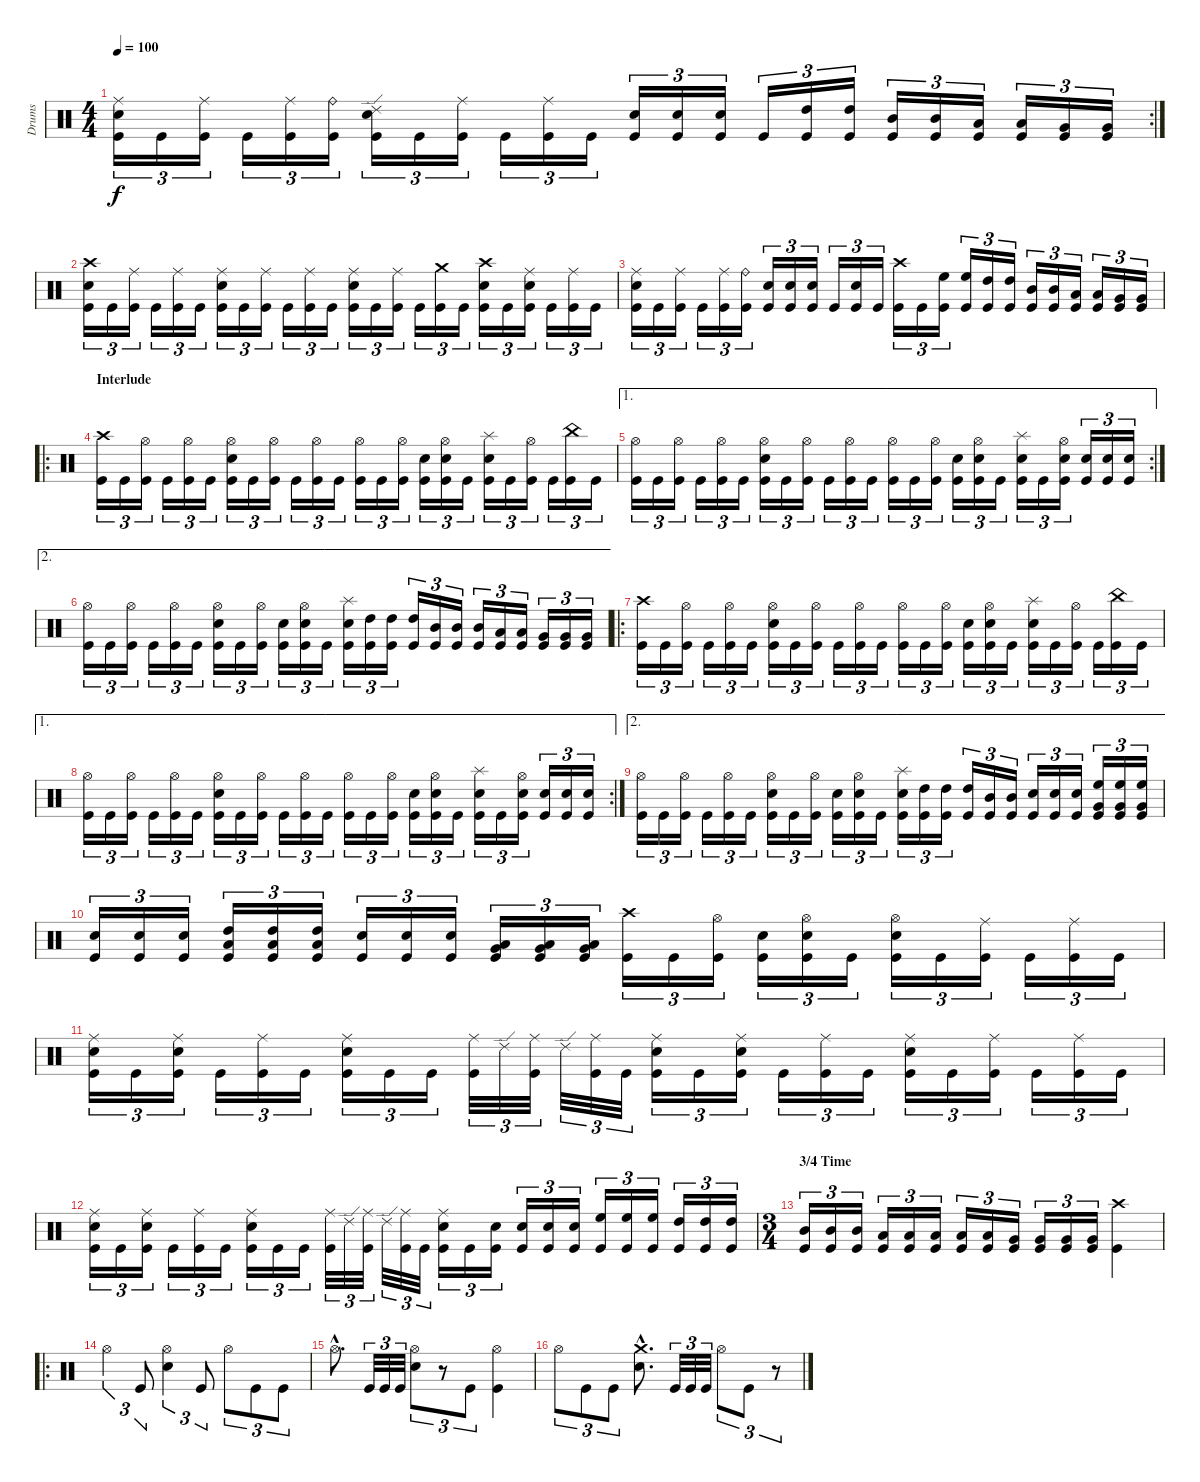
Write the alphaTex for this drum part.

\track ("Drums" "Drums") {instrument percussion}
\staff {score}
\articulation defaults
\rc 2
\ts (4 4)
\tempo 100
\clef neutral
\ks c
("Ride (middle)" "Electric Snare (hit)" "Kick (hit)").16{tu (3 2) dy f} "Kick (hit)".16{tu (3 2)} ("Ride (middle)" "Kick (hit)").16{tu (3 2)} "Kick (hit)".16{tu (3 2)} ("Ride (middle)" "Kick (hit)").16{tu (3 2)} ("Ride (bell)" "Kick (hit)").16{tu (3 2)} ("Ride (edge) 2" "Electric Snare (hit)" "Kick (hit)").16{tu (3 2)} "Kick (hit)".16{tu (3 2)} ("Ride (middle)" "Kick (hit)").16{tu (3 2)} "Kick (hit)".16{tu (3 2)} ("Ride (middle)" "Kick (hit)").16{tu (3 2)} "Kick (hit)".16{tu (3 2)} ("Electric Snare (hit)" "Kick (hit)").16{tu (3 2)} ("Electric Snare (hit)" "Kick (hit)").16{tu (3 2)} ("Electric Snare (hit)" "Kick (hit)").16{tu (3 2)} "Kick (hit)".16{tu (3 2)} ("High Tom (hit)" "Kick (hit)").16{tu (3 2)} ("High Tom (hit)" "Kick (hit)").16{tu (3 2)} ("Mid Tom (hit)" "Kick (hit)").16{tu (3 2)} ("Mid Tom (hit)" "Kick (hit)").16{tu (3 2)} ("Low Tom (hit)" "Kick (hit)").16{tu (3 2)} ("Low Tom (hit)" "Kick (hit)").16{tu (3 2)} ("Very Low Tom (hit)" "Kick (hit)").16{tu (3 2)} ("Very Low Tom (hit)" "Kick (hit)").16{tu (3 2)} |
("Crash high (hit)" "Electric Snare (hit)" "Kick (hit)").16{tu (3 2)} "Kick (hit)".16{tu (3 2)} ("Ride (middle)" "Kick (hit)").16{tu (3 2)} "Kick (hit)".16{tu (3 2)} ("Ride (middle)" "Kick (hit)").16{tu (3 2)} "Kick (hit)".16{tu (3 2)} ("Ride (middle)" "Electric Snare (hit)" "Kick (hit)").16{tu (3 2)} "Kick (hit)".16{tu (3 2)} ("Ride (middle)" "Kick (hit)").16{tu (3 2)} "Kick (hit)".16{tu (3 2)} ("Ride (middle)" "Kick (hit)").16{tu (3 2)} "Kick (hit)".16{tu (3 2)} ("Ride (middle)" "Electric Snare (hit)" "Kick (hit)").16{tu (3 2)} "Kick (hit)".16{tu (3 2)} ("Ride (middle)" "Kick (hit)").16{tu (3 2)} "Kick (hit)".16{tu (3 2)} ("Crash medium (hit)" "Kick (hit)").16{tu (3 2)} "Kick (hit)".16{tu (3 2)} ("Crash high (hit)" "Electric Snare (hit)" "Kick (hit)").16{tu (3 2)} "Kick (hit)".16{tu (3 2)} ("Ride (middle)" "Electric Snare (hit)" "Kick (hit)").16{tu (3 2)} "Kick (hit)".16{tu (3 2)} ("Ride (middle)" "Kick (hit)").16{tu (3 2)} "Kick (hit)".16{tu (3 2)} |
("Ride (middle)" "Electric Snare (hit)" "Kick (hit)").16{tu (3 2)} "Kick (hit)".16{tu (3 2)} ("Ride (middle)" "Kick (hit)").16{tu (3 2)} "Kick (hit)".16{tu (3 2)} ("Ride (middle)" "Kick (hit)").16{tu (3 2)} ("Ride (bell)" "Kick (hit)").16{tu (3 2)} ("Electric Snare (hit)" "Kick (hit)").16{tu (3 2)} ("Electric Snare (hit)" "Kick (hit)").16{tu (3 2)} ("Electric Snare (hit)" "Kick (hit)").16{tu (3 2)} "Kick (hit)".16{tu (3 2)} ("Electric Snare (hit)" "Kick (hit)").16{tu (3 2)} "Kick (hit)".16{tu (3 2)} ("Crash high (hit)" "Kick (hit)").16{tu (3 2)} "Kick (hit)".16{tu (3 2)} ("High Floor Tom (hit)" "Kick (hit)").16{tu (3 2)} ("High Floor Tom (hit)" "Kick (hit)").16{tu (3 2)} ("High Tom (hit)" "Kick (hit)").16{tu (3 2)} ("High Tom (hit)" "Kick (hit)").16{tu (3 2)} ("Mid Tom (hit)" "Kick (hit)").16{tu (3 2)} ("Mid Tom (hit)" "Kick (hit)").16{tu (3 2)} ("Low Tom (hit)" "Kick (hit)").16{tu (3 2)} ("Low Tom (hit)" "Kick (hit)").16{tu (3 2)} ("Very Low Tom (hit)" "Kick (hit)").16{tu (3 2)} ("Very Low Tom (hit)" "Kick (hit)").16{tu (3 2)} |
\ro
\section ("" "Interlude")
("Crash high (hit)" "Kick (hit)").16{tu (3 2)} "Kick (hit)".16{tu (3 2)} ("Hi-Hat (open)" "Kick (hit)").16{tu (3 2)} "Kick (hit)".16{tu (3 2)} ("Hi-Hat (open)" "Kick (hit)").16{tu (3 2)} "Kick (hit)".16{tu (3 2)} ("Hi-Hat (open)" "Electric Snare (hit)" "Kick (hit)").16{tu (3 2)} "Kick (hit)".16{tu (3 2)} ("Hi-Hat (open)" "Kick (hit)").16{tu (3 2)} "Kick (hit)".16{tu (3 2)} ("Hi-Hat (open)" "Kick (hit)").16{tu (3 2)} "Kick (hit)".16{tu (3 2)} ("Hi-Hat (open)" "Kick (hit)").16{tu (3 2)} "Kick (hit)".16{tu (3 2)} ("Hi-Hat (open)" "Kick (hit)").16{tu (3 2)} ("Electric Snare (hit)" "Kick (hit)").16{tu (3 2)} ("Hi-Hat (open)" "Electric Snare (hit)" "Kick (hit)").16{tu (3 2)} "Kick (hit)".16{tu (3 2)} ("Splash (hit)" "Electric Snare (hit)" "Kick (hit)").16{tu (3 2)} "Kick (hit)".16{tu (3 2)} ("Hi-Hat (open)" "Kick (hit)").16{tu (3 2)} "Kick (hit)".16{tu (3 2)} ("China (hit)" "Kick (hit)").16{tu (3 2)} "Kick (hit)".16{tu (3 2)} |
\ae 1
\rc 2
("Hi-Hat (open)" "Kick (hit)").16{tu (3 2)} "Kick (hit)".16{tu (3 2)} ("Hi-Hat (open)" "Kick (hit)").16{tu (3 2)} "Kick (hit)".16{tu (3 2)} ("Hi-Hat (open)" "Kick (hit)").16{tu (3 2)} "Kick (hit)".16{tu (3 2)} ("Hi-Hat (open)" "Electric Snare (hit)" "Kick (hit)").16{tu (3 2)} "Kick (hit)".16{tu (3 2)} ("Hi-Hat (open)" "Kick (hit)").16{tu (3 2)} "Kick (hit)".16{tu (3 2)} ("Hi-Hat (open)" "Kick (hit)").16{tu (3 2)} "Kick (hit)".16{tu (3 2)} ("Hi-Hat (open)" "Kick (hit)").16{tu (3 2)} "Kick (hit)".16{tu (3 2)} ("Hi-Hat (open)" "Kick (hit)").16{tu (3 2)} ("Electric Snare (hit)" "Kick (hit)").16{tu (3 2)} ("Hi-Hat (open)" "Electric Snare (hit)" "Kick (hit)").16{tu (3 2)} "Kick (hit)".16{tu (3 2)} ("Splash (hit)" "Electric Snare (hit)" "Kick (hit)").16{tu (3 2)} "Kick (hit)".16{tu (3 2)} ("Hi-Hat (open)" "Electric Snare (hit)" "Kick (hit)").16{tu (3 2)} ("Electric Snare (hit)" "Kick (hit)").16{tu (3 2)} ("Electric Snare (hit)" "Kick (hit)").16{tu (3 2)} ("Electric Snare (hit)" "Kick (hit)").16{tu (3 2)} |
\ae 2
("Hi-Hat (open)" "Kick (hit)").16{tu (3 2)} "Kick (hit)".16{tu (3 2)} ("Hi-Hat (open)" "Kick (hit)").16{tu (3 2)} "Kick (hit)".16{tu (3 2)} ("Hi-Hat (open)" "Kick (hit)").16{tu (3 2)} "Kick (hit)".16{tu (3 2)} ("Hi-Hat (open)" "Electric Snare (hit)" "Kick (hit)").16{tu (3 2)} "Kick (hit)".16{tu (3 2)} ("Hi-Hat (open)" "Kick (hit)").16{tu (3 2)} ("Electric Snare (hit)" "Kick (hit)").16{tu (3 2)} ("Hi-Hat (open)" "Electric Snare (hit)" "Kick (hit)").16{tu (3 2)} "Kick (hit)".16{tu (3 2)} ("Splash (hit)" "Electric Snare (hit)" "Kick (hit)").16{tu (3 2)} ("High Tom (hit)" "Kick (hit)").16{tu (3 2)} ("High Tom (hit)" "Kick (hit)").16{tu (3 2)} ("High Tom (hit)" "Kick (hit)").16{tu (3 2)} ("Mid Tom (hit)" "Kick (hit)").16{tu (3 2)} ("Mid Tom (hit)" "Kick (hit)").16{tu (3 2)} ("Mid Tom (hit)" "Kick (hit)").16{tu (3 2)} ("Low Tom (hit)" "Kick (hit)").16{tu (3 2)} ("Low Tom (hit)" "Kick (hit)").16{tu (3 2)} ("Very Low Tom (hit)" "Kick (hit)").16{tu (3 2)} ("Very Low Tom (hit)" "Kick (hit)").16{tu (3 2)} ("Very Low Tom (hit)" "Kick (hit)").16{tu (3 2)} |
\ro
("Crash high (hit)" "Kick (hit)").16{tu (3 2)} "Kick (hit)".16{tu (3 2)} ("Hi-Hat (open)" "Kick (hit)").16{tu (3 2)} "Kick (hit)".16{tu (3 2)} ("Hi-Hat (open)" "Kick (hit)").16{tu (3 2)} "Kick (hit)".16{tu (3 2)} ("Hi-Hat (open)" "Electric Snare (hit)" "Kick (hit)").16{tu (3 2)} "Kick (hit)".16{tu (3 2)} ("Hi-Hat (open)" "Kick (hit)").16{tu (3 2)} "Kick (hit)".16{tu (3 2)} ("Hi-Hat (open)" "Kick (hit)").16{tu (3 2)} "Kick (hit)".16{tu (3 2)} ("Hi-Hat (open)" "Kick (hit)").16{tu (3 2)} "Kick (hit)".16{tu (3 2)} ("Hi-Hat (open)" "Kick (hit)").16{tu (3 2)} ("Electric Snare (hit)" "Kick (hit)").16{tu (3 2)} ("Hi-Hat (open)" "Electric Snare (hit)" "Kick (hit)").16{tu (3 2)} "Kick (hit)".16{tu (3 2)} ("Splash (hit)" "Electric Snare (hit)" "Kick (hit)").16{tu (3 2)} "Kick (hit)".16{tu (3 2)} ("Hi-Hat (open)" "Kick (hit)").16{tu (3 2)} "Kick (hit)".16{tu (3 2)} ("China (hit)" "Kick (hit)").16{tu (3 2)} "Kick (hit)".16{tu (3 2)} |
\ae 1
\rc 2
("Hi-Hat (open)" "Kick (hit)").16{tu (3 2)} "Kick (hit)".16{tu (3 2)} ("Hi-Hat (open)" "Kick (hit)").16{tu (3 2)} "Kick (hit)".16{tu (3 2)} ("Hi-Hat (open)" "Kick (hit)").16{tu (3 2)} "Kick (hit)".16{tu (3 2)} ("Hi-Hat (open)" "Electric Snare (hit)" "Kick (hit)").16{tu (3 2)} "Kick (hit)".16{tu (3 2)} ("Hi-Hat (open)" "Kick (hit)").16{tu (3 2)} "Kick (hit)".16{tu (3 2)} ("Hi-Hat (open)" "Kick (hit)").16{tu (3 2)} "Kick (hit)".16{tu (3 2)} ("Hi-Hat (open)" "Kick (hit)").16{tu (3 2)} "Kick (hit)".16{tu (3 2)} ("Hi-Hat (open)" "Kick (hit)").16{tu (3 2)} ("Electric Snare (hit)" "Kick (hit)").16{tu (3 2)} ("Hi-Hat (open)" "Electric Snare (hit)" "Kick (hit)").16{tu (3 2)} "Kick (hit)".16{tu (3 2)} ("Splash (hit)" "Electric Snare (hit)" "Kick (hit)").16{tu (3 2)} "Kick (hit)".16{tu (3 2)} ("Hi-Hat (open)" "Electric Snare (hit)" "Kick (hit)").16{tu (3 2)} ("Electric Snare (hit)" "Kick (hit)").16{tu (3 2)} ("Electric Snare (hit)" "Kick (hit)").16{tu (3 2)} ("Electric Snare (hit)" "Kick (hit)").16{tu (3 2)} |
\ae 2
("Hi-Hat (open)" "Kick (hit)").16{tu (3 2)} "Kick (hit)".16{tu (3 2)} ("Hi-Hat (open)" "Kick (hit)").16{tu (3 2)} "Kick (hit)".16{tu (3 2)} ("Hi-Hat (open)" "Kick (hit)").16{tu (3 2)} "Kick (hit)".16{tu (3 2)} ("Hi-Hat (open)" "Electric Snare (hit)" "Kick (hit)").16{tu (3 2)} "Kick (hit)".16{tu (3 2)} ("Hi-Hat (open)" "Kick (hit)").16{tu (3 2)} ("Electric Snare (hit)" "Kick (hit)").16{tu (3 2)} ("Hi-Hat (open)" "Electric Snare (hit)" "Kick (hit)").16{tu (3 2)} "Kick (hit)".16{tu (3 2)} ("Splash (hit)" "Electric Snare (hit)" "Kick (hit)").16{tu (3 2)} ("High Tom (hit)" "Kick (hit)").16{tu (3 2)} ("High Tom (hit)" "Kick (hit)").16{tu (3 2)} ("High Tom (hit)" "Kick (hit)").16{tu (3 2)} ("Mid Tom (hit)" "Kick (hit)").16{tu (3 2)} ("Mid Tom (hit)" "Kick (hit)").16{tu (3 2)} ("Electric Snare (hit)" "Kick (hit)").16{tu (3 2)} ("Electric Snare (hit)" "Kick (hit)").16{tu (3 2)} ("Electric Snare (hit)" "Kick (hit)").16{tu (3 2)} ("High Floor Tom (hit)" "Very Low Tom (hit)" "Kick (hit)").16{tu (3 2)} ("High Floor Tom (hit)" "Very Low Tom (hit)" "Kick (hit)").16{tu (3 2)} ("High Floor Tom (hit)" "Very Low Tom (hit)" "Kick (hit)").16{tu (3 2)} |
("Electric Snare (hit)" "Kick (hit)").16{tu (3 2)} ("Electric Snare (hit)" "Kick (hit)").16{tu (3 2)} ("Electric Snare (hit)" "Kick (hit)").16{tu (3 2)} ("Low Tom (hit)" "High Tom (hit)" "Kick (hit)").16{tu (3 2)} ("Low Tom (hit)" "High Tom (hit)" "Kick (hit)").16{tu (3 2)} ("Low Tom (hit)" "High Tom (hit)" "Kick (hit)").16{tu (3 2)} ("Electric Snare (hit)" "Kick (hit)").16{tu (3 2)} ("Electric Snare (hit)" "Kick (hit)").16{tu (3 2)} ("Electric Snare (hit)" "Kick (hit)").16{tu (3 2)} ("Very Low Tom (hit)" "Low Tom (hit)" "Kick (hit)").16{tu (3 2)} ("Very Low Tom (hit)" "Low Tom (hit)" "Kick (hit)").16{tu (3 2)} ("Very Low Tom (hit)" "Low Tom (hit)" "Kick (hit)").16{tu (3 2)} ("Crash high (hit)" "Kick (hit)").16{tu (3 2)} "Kick (hit)".16{tu (3 2)} ("Hi-Hat (open)" "Kick (hit)").16{tu (3 2)} ("Electric Snare (hit)" "Kick (hit)").16{tu (3 2)} ("Hi-Hat (open)" "Electric Snare (hit)" "Kick (hit)").16{tu (3 2)} "Kick (hit)".16{tu (3 2)} ("Hi-Hat (open)" "Electric Snare (hit)" "Kick (hit)").16{tu (3 2)} "Kick (hit)".16{tu (3 2)} ("Ride (middle)" "Kick (hit)").16{tu (3 2)} "Kick (hit)".16{tu (3 2)} ("Ride (middle)" "Kick (hit)").16{tu (3 2)} "Kick (hit)".16{tu (3 2)} |
("Ride (middle)" "Electric Snare (hit)" "Kick (hit)").16{tu (3 2)} "Kick (hit)".16{tu (3 2)} ("Ride (middle)" "Electric Snare (hit)" "Kick (hit)").16{tu (3 2)} "Kick (hit)".16{tu (3 2)} ("Ride (middle)" "Kick (hit)").16{tu (3 2)} "Kick (hit)".16{tu (3 2)} ("Ride (middle)" "Electric Snare (hit)" "Kick (hit)").16{tu (3 2)} "Kick (hit)".16{tu (3 2)} "Kick (hit)".16{tu (3 2)} ("Ride (middle)" "Kick (hit)").32{tu (3 2)} "Ride (edge) 2".32{tu (3 2)} ("Ride (middle)" "Kick (hit)").32{tu (3 2)} "Ride (edge) 2".32{tu (3 2)} ("Ride (middle)" "Kick (hit)").32{tu (3 2)} "Kick (hit)".32{tu (3 2)} ("Ride (middle)" "Electric Snare (hit)" "Kick (hit)").16{tu (3 2)} "Kick (hit)".16{tu (3 2)} ("Ride (middle)" "Electric Snare (hit)" "Kick (hit)").16{tu (3 2)} "Kick (hit)".16{tu (3 2)} ("Ride (middle)" "Kick (hit)").16{tu (3 2)} "Kick (hit)".16{tu (3 2)} ("Ride (middle)" "Electric Snare (hit)" "Kick (hit)").16{tu (3 2)} "Kick (hit)".16{tu (3 2)} ("Ride (middle)" "Kick (hit)").16{tu (3 2)} "Kick (hit)".16{tu (3 2)} ("Ride (middle)" "Kick (hit)").16{tu (3 2)} "Kick (hit)".16{tu (3 2)} |
("Ride (middle)" "Electric Snare (hit)" "Kick (hit)").16{tu (3 2)} "Kick (hit)".16{tu (3 2)} ("Ride (middle)" "Electric Snare (hit)" "Kick (hit)").16{tu (3 2)} "Kick (hit)".16{tu (3 2)} ("Ride (middle)" "Kick (hit)").16{tu (3 2)} "Kick (hit)".16{tu (3 2)} ("Ride (middle)" "Electric Snare (hit)" "Kick (hit)").16{tu (3 2)} "Kick (hit)".16{tu (3 2)} "Kick (hit)".16{tu (3 2)} ("Ride (middle)" "Kick (hit)").32{tu (3 2)} "Ride (edge) 2".32{tu (3 2)} ("Ride (middle)" "Kick (hit)").32{tu (3 2)} "Ride (edge) 2".32{tu (3 2)} ("Ride (middle)" "Kick (hit)").32{tu (3 2)} "Kick (hit)".32{tu (3 2)} ("Ride (middle)" "Electric Snare (hit)" "Kick (hit)").16{tu (3 2)} "Kick (hit)".16{tu (3 2)} ("Electric Snare (hit)" "Kick (hit)").16{tu (3 2)} ("Electric Snare (hit)" "Kick (hit)").16{tu (3 2)} ("Electric Snare (hit)" "Kick (hit)").16{tu (3 2)} ("Electric Snare (hit)" "Kick (hit)").16{tu (3 2)} ("High Floor Tom (hit)" "Kick (hit)").16{tu (3 2)} ("High Floor Tom (hit)" "Kick (hit)").16{tu (3 2)} ("High Floor Tom (hit)" "Kick (hit)").16{tu (3 2)} ("High Tom (hit)" "Kick (hit)").16{tu (3 2)} ("High Tom (hit)" "Kick (hit)").16{tu (3 2)} ("High Tom (hit)" "Kick (hit)").16{tu (3 2)} |
\ts (3 4)
\section ("" "3/4 Time")
("Mid Tom (hit)" "Kick (hit)").16{tu (3 2)} ("Mid Tom (hit)" "Kick (hit)").16{tu (3 2)} ("Mid Tom (hit)" "Kick (hit)").16{tu (3 2)} ("Low Tom (hit)" "Kick (hit)").16{tu (3 2)} ("Low Tom (hit)" "Kick (hit)").16{tu (3 2)} ("Low Tom (hit)" "Kick (hit)").16{tu (3 2)} ("Low Tom (hit)" "Kick (hit)").16{tu (3 2)} ("Low Tom (hit)" "Kick (hit)").16{tu (3 2)} ("Very Low Tom (hit)" "Kick (hit)").16{tu (3 2)} ("Very Low Tom (hit)" "Kick (hit)").16{tu (3 2)} ("Very Low Tom (hit)" "Kick (hit)").16{tu (3 2)} ("Very Low Tom (hit)" "Kick (hit)").16{tu (3 2)} ("Crash high (hit)" "Kick (hit)").4 |
\ro "Hi-Hat (open)".4{tu (3 2)} "Kick (hit)".8{tu (3 2)}
("Hi-Hat (open)" "Electric Snare (hit)").4{tu (3 2)} "Kick (hit)".8{tu (3 2)} "Hi-Hat (open)".8{tu (3 2)} "Kick (hit)".8{tu (3 2)} "Kick (hit)".8{tu (3 2)} |
"Hi-Hat (open)"{hac}.8{d} "Kick (hit)".32{tu (3 2)} "Kick (hit)".32{tu (3 2)} "Kick (hit)".32{tu (3 2)} ("Hi-Hat (open)" "Electric Snare (hit)").8{tu (3 2)} r.8{tu (3 2)} "Kick (hit)".8{tu (3 2)} ("Hi-Hat (open)" "Kick (hit)").4 |
"Hi-Hat (open)".8{tu (3 2)} "Kick (hit)".8{tu (3 2)} "Kick (hit)".8{tu (3 2)} ("Crash medium (hit)"{hac} "Electric Snare (hit)"{hac}).8{d} "Kick (hit)".32{tu (3 2)} "Kick (hit)".32{tu (3 2)} "Kick (hit)".32{tu (3 2)} "Hi-Hat (open)".8{tu (3 2)} "Kick (hit)".8{tu (3 2)} r.8{tu (3 2)}
